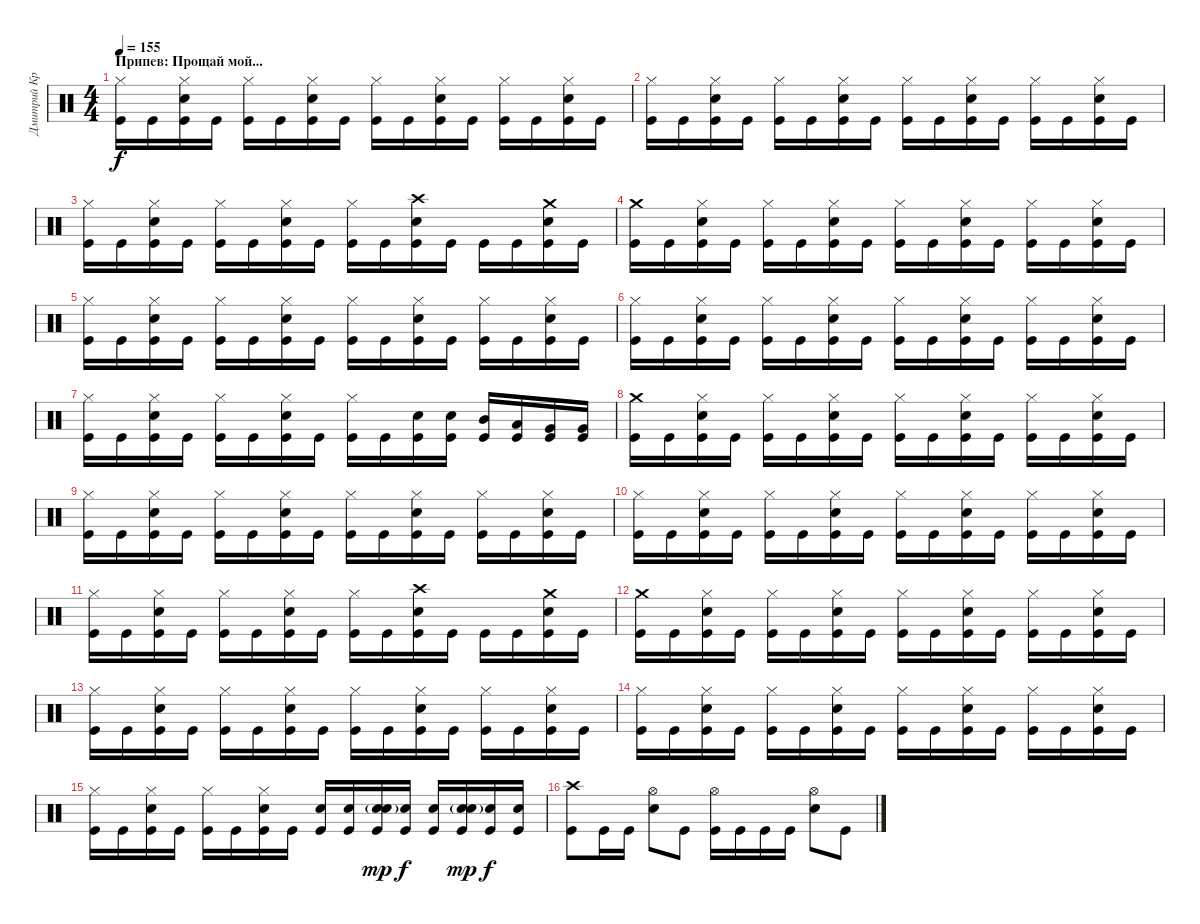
\track ("Дмитрий Кривенков" "Дмитрий Кр") {instrument percussion}
\staff {score}
\articulation defaults
\ts (4 4)
\section ("" "Припев: Прощай мой...")
\tempo 155
\clef neutral
\ks c
("Hi-Hat (closed)" "Kick (hit)").16{dy f} "Kick (hit)".16 ("Hi-Hat (closed)" "Snare (hit) 2" "Kick (hit)").16 "Kick (hit)".16 ("Hi-Hat (closed)" "Kick (hit)").16 "Kick (hit)".16 ("Hi-Hat (closed)" "Snare (hit) 2" "Kick (hit)").16 "Kick (hit)".16 ("Hi-Hat (closed)" "Kick (hit)").16 "Kick (hit)".16 ("Hi-Hat (closed)" "Snare (hit) 2" "Kick (hit)").16 "Kick (hit)".16 ("Hi-Hat (closed)" "Kick (hit)").16 "Kick (hit)".16 ("Hi-Hat (closed)" "Snare (hit) 2" "Kick (hit)").16 "Kick (hit)".16 |
("Hi-Hat (closed)" "Kick (hit)").16 "Kick (hit)".16 ("Hi-Hat (closed)" "Snare (hit) 2" "Kick (hit)").16 "Kick (hit)".16 ("Hi-Hat (closed)" "Kick (hit)").16 "Kick (hit)".16 ("Hi-Hat (closed)" "Snare (hit) 2" "Kick (hit)").16 "Kick (hit)".16 ("Hi-Hat (closed)" "Kick (hit)").16 "Kick (hit)".16 ("Hi-Hat (closed)" "Snare (hit) 2" "Kick (hit)").16 "Kick (hit)".16 ("Hi-Hat (closed)" "Kick (hit)").16 "Kick (hit)".16 ("Hi-Hat (closed)" "Snare (hit) 2" "Kick (hit)").16 "Kick (hit)".16 |
("Hi-Hat (closed)" "Kick (hit)").16 "Kick (hit)".16 ("Hi-Hat (closed)" "Snare (hit) 2" "Kick (hit)").16 "Kick (hit)".16 ("Hi-Hat (closed)" "Kick (hit)").16 "Kick (hit)".16 ("Hi-Hat (closed)" "Snare (hit) 2" "Kick (hit)").16 "Kick (hit)".16 ("Hi-Hat (closed)" "Kick (hit)").16 "Kick (hit)".16 ("Crash high (hit)" "Snare (hit) 2" "Kick (hit)").16 "Kick (hit)".16 "Kick (hit)".16 "Kick (hit)".16 ("Crash medium (hit)" "Snare (hit) 2" "Kick (hit)").16 "Kick (hit)".16 |
("Crash medium (hit)" "Kick (hit)").16 "Kick (hit)".16 ("Hi-Hat (closed)" "Snare (hit) 2" "Kick (hit)").16 "Kick (hit)".16 ("Hi-Hat (closed)" "Kick (hit)").16 "Kick (hit)".16 ("Hi-Hat (closed)" "Snare (hit) 2" "Kick (hit)").16 "Kick (hit)".16 ("Hi-Hat (closed)" "Kick (hit)").16 "Kick (hit)".16 ("Hi-Hat (closed)" "Snare (hit) 2" "Kick (hit)").16 "Kick (hit)".16 ("Hi-Hat (closed)" "Kick (hit)").16 "Kick (hit)".16 ("Hi-Hat (closed)" "Snare (hit) 2" "Kick (hit)").16 "Kick (hit)".16 |
("Hi-Hat (closed)" "Kick (hit)").16 "Kick (hit)".16 ("Hi-Hat (closed)" "Snare (hit) 2" "Kick (hit)").16 "Kick (hit)".16 ("Hi-Hat (closed)" "Kick (hit)").16 "Kick (hit)".16 ("Hi-Hat (closed)" "Snare (hit) 2" "Kick (hit)").16 "Kick (hit)".16 ("Hi-Hat (closed)" "Kick (hit)").16 "Kick (hit)".16 ("Hi-Hat (closed)" "Snare (hit) 2" "Kick (hit)").16 "Kick (hit)".16 ("Hi-Hat (closed)" "Kick (hit)").16 "Kick (hit)".16 ("Hi-Hat (closed)" "Snare (hit) 2" "Kick (hit)").16 "Kick (hit)".16 |
("Hi-Hat (closed)" "Kick (hit)").16 "Kick (hit)".16 ("Hi-Hat (closed)" "Snare (hit) 2" "Kick (hit)").16 "Kick (hit)".16 ("Hi-Hat (closed)" "Kick (hit)").16 "Kick (hit)".16 ("Hi-Hat (closed)" "Snare (hit) 2" "Kick (hit)").16 "Kick (hit)".16 ("Hi-Hat (closed)" "Kick (hit)").16 "Kick (hit)".16 ("Hi-Hat (closed)" "Snare (hit) 2" "Kick (hit)").16 "Kick (hit)".16 ("Hi-Hat (closed)" "Kick (hit)").16 "Kick (hit)".16 ("Hi-Hat (closed)" "Snare (hit) 2" "Kick (hit)").16 "Kick (hit)".16 |
("Hi-Hat (closed)" "Kick (hit)").16 "Kick (hit)".16 ("Hi-Hat (closed)" "Snare (hit) 2" "Kick (hit)").16 "Kick (hit)".16 ("Hi-Hat (closed)" "Kick (hit)").16 "Kick (hit)".16 ("Hi-Hat (closed)" "Snare (hit) 2" "Kick (hit)").16 "Kick (hit)".16 ("Hi-Hat (closed)" "Kick (hit)").16 "Kick (hit)".16 ("Snare (hit) 2" "Kick (hit)").16 ("Snare (hit) 2" "Kick (hit)").16 ("Mid Tom (hit)" "Kick (hit)").16 ("Low Tom (hit)" "Kick (hit)").16 ("Very Low Tom (hit)" "Kick (hit)").16 ("Very Low Tom (hit)" "Kick (hit)").16 |
("Crash medium (hit)" "Kick (hit)").16 "Kick (hit)".16 ("Hi-Hat (closed)" "Snare (hit) 2" "Kick (hit)").16 "Kick (hit)".16 ("Hi-Hat (closed)" "Kick (hit)").16 "Kick (hit)".16 ("Hi-Hat (closed)" "Snare (hit) 2" "Kick (hit)").16 "Kick (hit)".16 ("Hi-Hat (closed)" "Kick (hit)").16 "Kick (hit)".16 ("Hi-Hat (closed)" "Snare (hit) 2" "Kick (hit)").16 "Kick (hit)".16 ("Hi-Hat (closed)" "Kick (hit)").16 "Kick (hit)".16 ("Hi-Hat (closed)" "Snare (hit) 2" "Kick (hit)").16 "Kick (hit)".16 |
("Hi-Hat (closed)" "Kick (hit)").16 "Kick (hit)".16 ("Hi-Hat (closed)" "Snare (hit) 2" "Kick (hit)").16 "Kick (hit)".16 ("Hi-Hat (closed)" "Kick (hit)").16 "Kick (hit)".16 ("Hi-Hat (closed)" "Snare (hit) 2" "Kick (hit)").16 "Kick (hit)".16 ("Hi-Hat (closed)" "Kick (hit)").16 "Kick (hit)".16 ("Hi-Hat (closed)" "Snare (hit) 2" "Kick (hit)").16 "Kick (hit)".16 ("Hi-Hat (closed)" "Kick (hit)").16 "Kick (hit)".16 ("Hi-Hat (closed)" "Snare (hit) 2" "Kick (hit)").16 "Kick (hit)".16 |
("Hi-Hat (closed)" "Kick (hit)").16 "Kick (hit)".16 ("Hi-Hat (closed)" "Snare (hit) 2" "Kick (hit)").16 "Kick (hit)".16 ("Hi-Hat (closed)" "Kick (hit)").16 "Kick (hit)".16 ("Hi-Hat (closed)" "Snare (hit) 2" "Kick (hit)").16 "Kick (hit)".16 ("Hi-Hat (closed)" "Kick (hit)").16 "Kick (hit)".16 ("Hi-Hat (closed)" "Snare (hit) 2" "Kick (hit)").16 "Kick (hit)".16 ("Hi-Hat (closed)" "Kick (hit)").16 "Kick (hit)".16 ("Hi-Hat (closed)" "Snare (hit) 2" "Kick (hit)").16 "Kick (hit)".16 |
("Hi-Hat (closed)" "Kick (hit)").16 "Kick (hit)".16 ("Hi-Hat (closed)" "Snare (hit) 2" "Kick (hit)").16 "Kick (hit)".16 ("Hi-Hat (closed)" "Kick (hit)").16 "Kick (hit)".16 ("Hi-Hat (closed)" "Snare (hit) 2" "Kick (hit)").16 "Kick (hit)".16 ("Hi-Hat (closed)" "Kick (hit)").16 "Kick (hit)".16 ("Crash high (hit)" "Snare (hit) 2" "Kick (hit)").16 "Kick (hit)".16 "Kick (hit)".16 "Kick (hit)".16 ("Crash medium (hit)" "Snare (hit) 2" "Kick (hit)").16 "Kick (hit)".16 |
("Crash medium (hit)" "Kick (hit)").16 "Kick (hit)".16 ("Snare (hit) 2" "Hi-Hat (closed)" "Kick (hit)").16 "Kick (hit)".16 ("Hi-Hat (closed)" "Kick (hit)").16 "Kick (hit)".16 ("Snare (hit) 2" "Hi-Hat (closed)" "Kick (hit)").16 "Kick (hit)".16 ("Hi-Hat (closed)" "Kick (hit)").16 "Kick (hit)".16 ("Snare (hit) 2" "Hi-Hat (closed)" "Kick (hit)").16 "Kick (hit)".16 ("Hi-Hat (closed)" "Kick (hit)").16 "Kick (hit)".16 ("Snare (hit) 2" "Hi-Hat (closed)" "Kick (hit)").16 "Kick (hit)".16 |
("Hi-Hat (closed)" "Kick (hit)").16 "Kick (hit)".16 ("Snare (hit) 2" "Hi-Hat (closed)" "Kick (hit)").16 "Kick (hit)".16 ("Hi-Hat (closed)" "Kick (hit)").16 "Kick (hit)".16 ("Snare (hit) 2" "Hi-Hat (closed)" "Kick (hit)").16 "Kick (hit)".16 ("Hi-Hat (closed)" "Kick (hit)").16 "Kick (hit)".16 ("Snare (hit) 2" "Hi-Hat (closed)" "Kick (hit)").16 "Kick (hit)".16 ("Hi-Hat (closed)" "Kick (hit)").16 "Kick (hit)".16 ("Snare (hit) 2" "Hi-Hat (closed)" "Kick (hit)").16 "Kick (hit)".16 |
("Hi-Hat (closed)" "Kick (hit)").16 "Kick (hit)".16 ("Hi-Hat (closed)" "Snare (hit) 2" "Kick (hit)").16 "Kick (hit)".16 ("Hi-Hat (closed)" "Kick (hit)").16 "Kick (hit)".16 ("Hi-Hat (closed)" "Snare (hit) 2" "Kick (hit)").16 "Kick (hit)".16 ("Hi-Hat (closed)" "Kick (hit)").16 "Kick (hit)".16 ("Hi-Hat (closed)" "Snare (hit) 2" "Kick (hit)").16 "Kick (hit)".16 ("Hi-Hat (closed)" "Kick (hit)").16 "Kick (hit)".16 ("Hi-Hat (closed)" "Snare (hit) 2" "Kick (hit)").16 "Kick (hit)".16 |
("Hi-Hat (closed)" "Kick (hit)").16 "Kick (hit)".16 ("Hi-Hat (closed)" "Snare (hit) 2" "Kick (hit)").16 "Kick (hit)".16 ("Hi-Hat (closed)" "Kick (hit)").16 "Kick (hit)".16 ("Hi-Hat (closed)" "Snare (hit) 2" "Kick (hit)").16 "Kick (hit)".16 ("Snare (hit) 2" "Kick (hit)").16 ("Snare (hit) 2" "Kick (hit)").16 ("Snare (hit) 2"{g} "Snare (hit) 2" "Kick (hit)").16{dy mp} ("Snare (hit) 2" "Kick (hit)").16{dy f} ("Snare (hit) 2" "Kick (hit)").16 ("Snare (hit) 2"{g} "Snare (hit) 2" "Kick (hit)").16{dy mp} ("Snare (hit) 2" "Kick (hit)").16{dy f} ("Snare (hit) 2" "Kick (hit)").16 |
("Crash high (hit)" "Kick (hit)").8 "Kick (hit)".16 "Kick (hit)".16 ("Hi-Hat (open)" "Snare (hit) 2").8 "Kick (hit)".8 ("Hi-Hat (open)" "Kick (hit)").16 "Kick (hit)".16 "Kick (hit)".16 "Kick (hit)".16 ("Hi-Hat (open)" "Snare (hit) 2").8 "Kick (hit)".8
